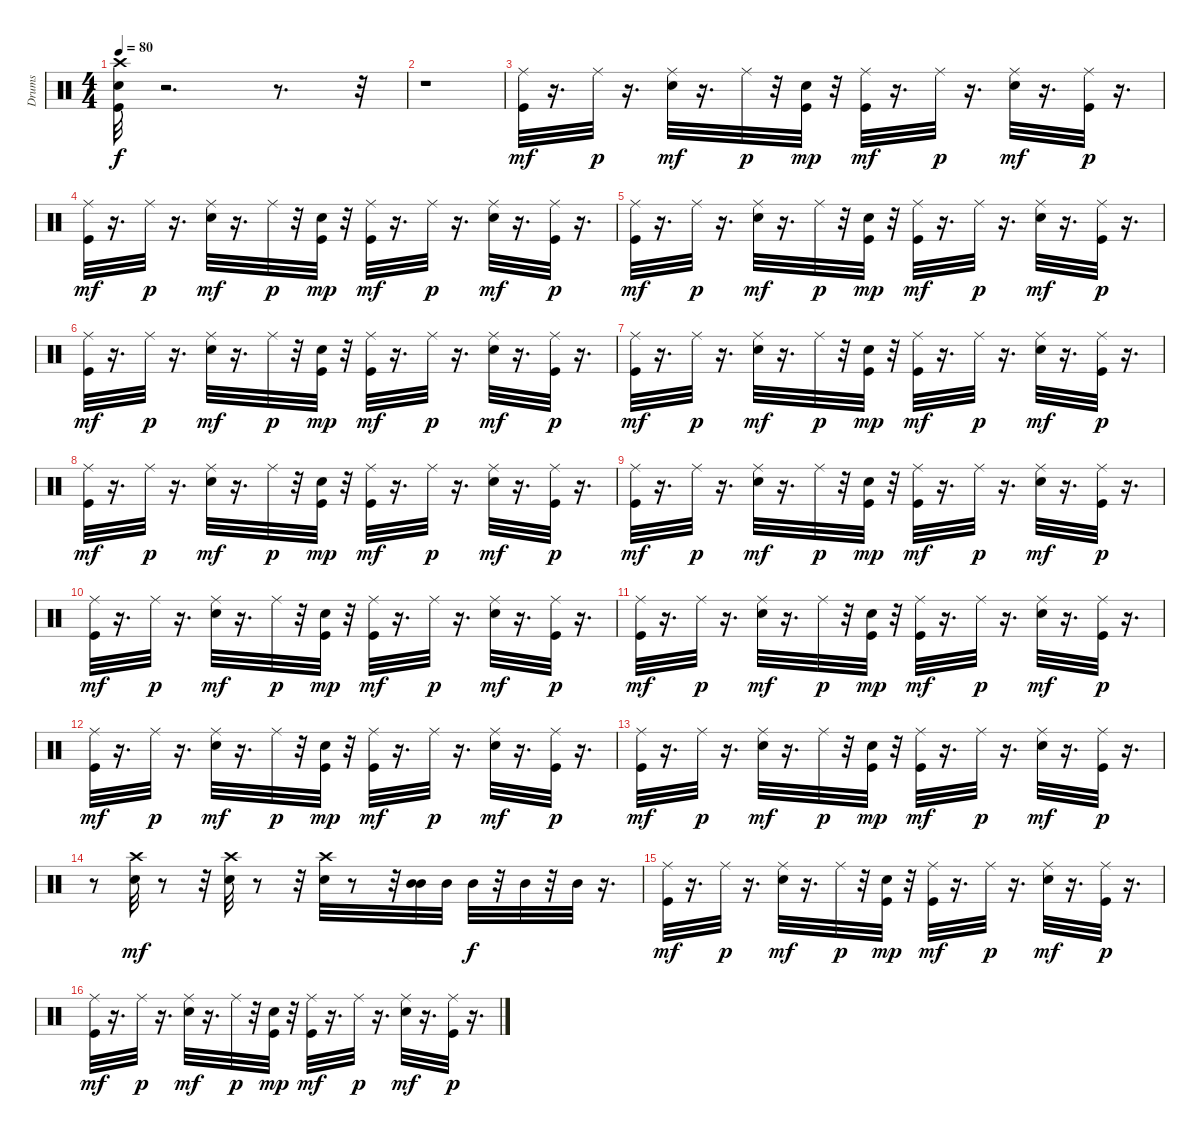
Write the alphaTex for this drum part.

\track ("Drums" "Drums") {instrument percussion}
\staff {score}
\articulation defaults
\ts (4 4)
\tempo 80
\clef neutral
\ks c
("Kick (hit)" "Snare (hit) 2" "Crash high (hit)").32{dy f} r.2{d} r.8{d} r.32 |
r.1 |
("Kick (hit)" "Ride (middle)").32{dy mf} r.16{d} "Ride (middle)".32{dy p} r.16{d} ("Snare (hit) 2" "Ride (middle)").32{dy mf} r.16{d} "Ride (middle)".32{dy p} r.32 ("Kick (hit)" "Snare (hit) 2").32{dy mp} r.32 ("Kick (hit)" "Ride (middle)").32{dy mf} r.16{d} "Ride (middle)".32{dy p} r.16{d} ("Snare (hit) 2" "Ride (middle)").32{dy mf} r.16{d} ("Kick (hit)" "Ride (middle)").32{dy p} r.16{d} |
("Kick (hit)" "Ride (middle)").32{dy mf} r.16{d} "Ride (middle)".32{dy p} r.16{d} ("Snare (hit) 2" "Ride (middle)").32{dy mf} r.16{d} "Ride (middle)".32{dy p} r.32 ("Kick (hit)" "Snare (hit) 2").32{dy mp} r.32 ("Kick (hit)" "Ride (middle)").32{dy mf} r.16{d} "Ride (middle)".32{dy p} r.16{d} ("Snare (hit) 2" "Ride (middle)").32{dy mf} r.16{d} ("Kick (hit)" "Ride (middle)").32{dy p} r.16{d} |
("Kick (hit)" "Ride (middle)").32{dy mf} r.16{d} "Ride (middle)".32{dy p} r.16{d} ("Snare (hit) 2" "Ride (middle)").32{dy mf} r.16{d} "Ride (middle)".32{dy p} r.32 ("Kick (hit)" "Snare (hit) 2").32{dy mp} r.32 ("Kick (hit)" "Ride (middle)").32{dy mf} r.16{d} "Ride (middle)".32{dy p} r.16{d} ("Snare (hit) 2" "Ride (middle)").32{dy mf} r.16{d} ("Kick (hit)" "Ride (middle)").32{dy p} r.16{d} |
("Kick (hit)" "Ride (middle)").32{dy mf} r.16{d} "Ride (middle)".32{dy p} r.16{d} ("Snare (hit) 2" "Ride (middle)").32{dy mf} r.16{d} "Ride (middle)".32{dy p} r.32 ("Kick (hit)" "Snare (hit) 2").32{dy mp} r.32 ("Kick (hit)" "Ride (middle)").32{dy mf} r.16{d} "Ride (middle)".32{dy p} r.16{d} ("Snare (hit) 2" "Ride (middle)").32{dy mf} r.16{d} ("Kick (hit)" "Ride (middle)").32{dy p} r.16{d} |
("Kick (hit)" "Ride (middle)").32{dy mf} r.16{d} "Ride (middle)".32{dy p} r.16{d} ("Snare (hit) 2" "Ride (middle)").32{dy mf} r.16{d} "Ride (middle)".32{dy p} r.32 ("Kick (hit)" "Snare (hit) 2").32{dy mp} r.32 ("Kick (hit)" "Ride (middle)").32{dy mf} r.16{d} "Ride (middle)".32{dy p} r.16{d} ("Snare (hit) 2" "Ride (middle)").32{dy mf} r.16{d} ("Kick (hit)" "Ride (middle)").32{dy p} r.16{d} |
("Kick (hit)" "Ride (middle)").32{dy mf} r.16{d} "Ride (middle)".32{dy p} r.16{d} ("Snare (hit) 2" "Ride (middle)").32{dy mf} r.16{d} "Ride (middle)".32{dy p} r.32 ("Kick (hit)" "Snare (hit) 2").32{dy mp} r.32 ("Kick (hit)" "Ride (middle)").32{dy mf} r.16{d} "Ride (middle)".32{dy p} r.16{d} ("Snare (hit) 2" "Ride (middle)").32{dy mf} r.16{d} ("Kick (hit)" "Ride (middle)").32{dy p} r.16{d} |
("Kick (hit)" "Ride (middle)").32{dy mf} r.16{d} "Ride (middle)".32{dy p} r.16{d} ("Snare (hit) 2" "Ride (middle)").32{dy mf} r.16{d} "Ride (middle)".32{dy p} r.32 ("Kick (hit)" "Snare (hit) 2").32{dy mp} r.32 ("Kick (hit)" "Ride (middle)").32{dy mf} r.16{d} "Ride (middle)".32{dy p} r.16{d} ("Snare (hit) 2" "Ride (middle)").32{dy mf} r.16{d} ("Kick (hit)" "Ride (middle)").32{dy p} r.16{d} |
("Kick (hit)" "Ride (middle)").32{dy mf} r.16{d} "Ride (middle)".32{dy p} r.16{d} ("Snare (hit) 2" "Ride (middle)").32{dy mf} r.16{d} "Ride (middle)".32{dy p} r.32 ("Kick (hit)" "Snare (hit) 2").32{dy mp} r.32 ("Kick (hit)" "Ride (middle)").32{dy mf} r.16{d} "Ride (middle)".32{dy p} r.16{d} ("Snare (hit) 2" "Ride (middle)").32{dy mf} r.16{d} ("Kick (hit)" "Ride (middle)").32{dy p} r.16{d} |
("Kick (hit)" "Ride (middle)").32{dy mf} r.16{d} "Ride (middle)".32{dy p} r.16{d} ("Snare (hit) 2" "Ride (middle)").32{dy mf} r.16{d} "Ride (middle)".32{dy p} r.32 ("Kick (hit)" "Snare (hit) 2").32{dy mp} r.32 ("Kick (hit)" "Ride (middle)").32{dy mf} r.16{d} "Ride (middle)".32{dy p} r.16{d} ("Snare (hit) 2" "Ride (middle)").32{dy mf} r.16{d} ("Kick (hit)" "Ride (middle)").32{dy p} r.16{d} |
("Kick (hit)" "Ride (middle)").32{dy mf} r.16{d} "Ride (middle)".32{dy p} r.16{d} ("Snare (hit) 2" "Ride (middle)").32{dy mf} r.16{d} "Ride (middle)".32{dy p} r.32 ("Kick (hit)" "Snare (hit) 2").32{dy mp} r.32 ("Kick (hit)" "Ride (middle)").32{dy mf} r.16{d} "Ride (middle)".32{dy p} r.16{d} ("Snare (hit) 2" "Ride (middle)").32{dy mf} r.16{d} ("Kick (hit)" "Ride (middle)").32{dy p} r.16{d} |
("Kick (hit)" "Ride (middle)").32{dy mf} r.16{d} "Ride (middle)".32{dy p} r.16{d} ("Snare (hit) 2" "Ride (middle)").32{dy mf} r.16{d} "Ride (middle)".32{dy p} r.32 ("Kick (hit)" "Snare (hit) 2").32{dy mp} r.32 ("Kick (hit)" "Ride (middle)").32{dy mf} r.16{d} "Ride (middle)".32{dy p} r.16{d} ("Snare (hit) 2" "Ride (middle)").32{dy mf} r.16{d} ("Kick (hit)" "Ride (middle)").32{dy p} r.16{d} |
r.8 ("Snare (hit) 2" "Crash high (hit)").32{dy mf} r.8 r.32 ("Crash high (hit)" "Snare (hit) 2").32 r.8 r.32 ("Crash high (hit)" "Snare (hit) 2").32 r.8 r.32 ("Mid Tom (hit)" "Mid Tom (hit)").32 "Mid Tom (hit)".32 "Mid Tom (hit)".32{dy f} r.32 "Mid Tom (hit)".32 r.32 "Mid Tom (hit)".32 r.16{d} |
("Kick (hit)" "Ride (middle)").32{dy mf} r.16{d} "Ride (middle)".32{dy p} r.16{d} ("Snare (hit) 2" "Ride (middle)").32{dy mf} r.16{d} "Ride (middle)".32{dy p} r.32 ("Kick (hit)" "Snare (hit) 2").32{dy mp} r.32 ("Kick (hit)" "Ride (middle)").32{dy mf} r.16{d} "Ride (middle)".32{dy p} r.16{d} ("Snare (hit) 2" "Ride (middle)").32{dy mf} r.16{d} ("Kick (hit)" "Ride (middle)").32{dy p} r.16{d} |
("Kick (hit)" "Ride (middle)").32{dy mf} r.16{d} "Ride (middle)".32{dy p} r.16{d} ("Snare (hit) 2" "Ride (middle)").32{dy mf} r.16{d} "Ride (middle)".32{dy p} r.32 ("Kick (hit)" "Snare (hit) 2").32{dy mp} r.32 ("Kick (hit)" "Ride (middle)").32{dy mf} r.16{d} "Ride (middle)".32{dy p} r.16{d} ("Snare (hit) 2" "Ride (middle)").32{dy mf} r.16{d} ("Kick (hit)" "Ride (middle)").32{dy p} r.16{d}
